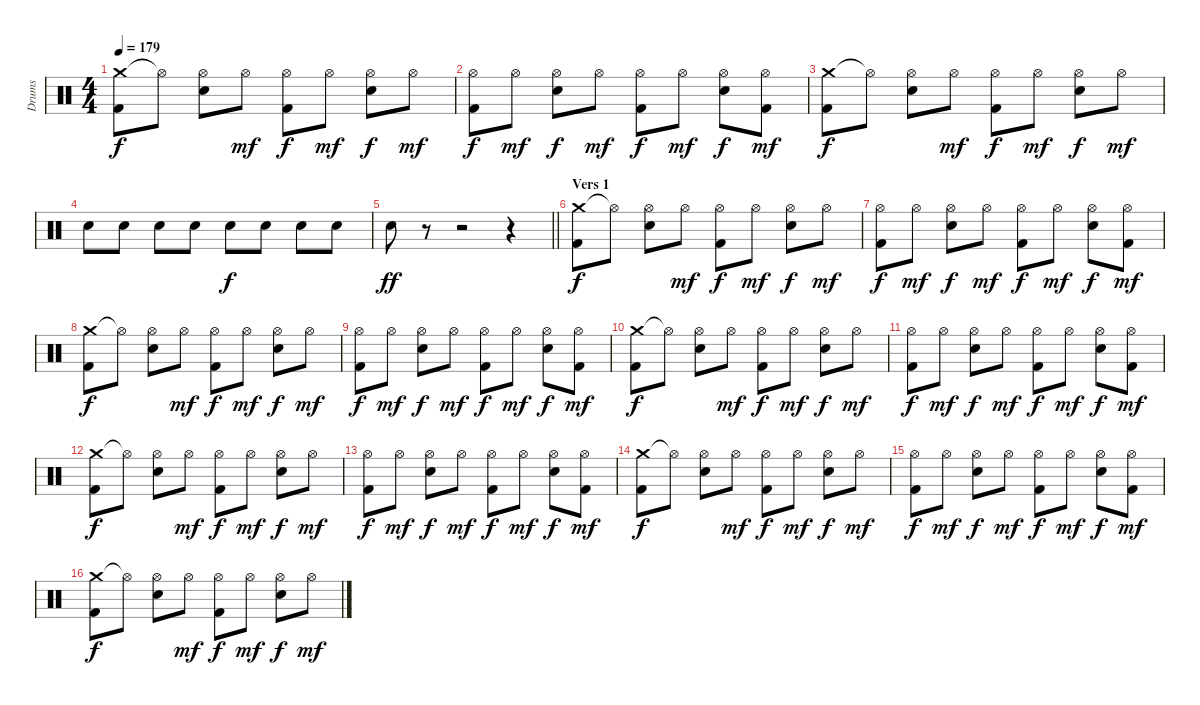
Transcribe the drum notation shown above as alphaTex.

\track ("Drums" "Drums") {instrument percussion}
\staff {score}
\articulation defaults
\ts (4 4)
\tempo 179
\clef neutral
\ks c
("Crash medium (hit)" "Kick (hit) 2").8{dy f} "Hi-Hat (open)"{t}.8 ("Hi-Hat (open)" "Electric Snare (hit)").8 "Hi-Hat (open)".8{dy mf} ("Hi-Hat (open)" "Kick (hit) 2").8{dy f} "Hi-Hat (open)".8{dy mf} ("Hi-Hat (open)" "Electric Snare (hit)").8{dy f} "Hi-Hat (open)".8{dy mf} |
("Hi-Hat (open)" "Kick (hit) 2").8{dy f} "Hi-Hat (open)".8{dy mf} ("Hi-Hat (open)" "Electric Snare (hit)").8{dy f} "Hi-Hat (open)".8{dy mf} ("Hi-Hat (open)" "Kick (hit) 2").8{dy f} "Hi-Hat (open)".8{dy mf} ("Hi-Hat (open)" "Electric Snare (hit)").8{dy f} ("Hi-Hat (open)" "Kick (hit) 2").8{dy mf} |
("Crash medium (hit)" "Kick (hit) 2").8{dy f} "Hi-Hat (open)"{t}.8 ("Hi-Hat (open)" "Electric Snare (hit)").8 "Hi-Hat (open)".8{dy mf} ("Hi-Hat (open)" "Kick (hit) 2").8{dy f} "Hi-Hat (open)".8{dy mf} ("Hi-Hat (open)" "Electric Snare (hit)").8{dy f} "Hi-Hat (open)".8{dy mf} |
"Electric Snare (hit)".8 "Electric Snare (hit)".8 "Electric Snare (hit)".8 "Electric Snare (hit)".8 "Electric Snare (hit)".8{dy f} "Electric Snare (hit)".8 "Electric Snare (hit)".8 "Electric Snare (hit)".8 |
\barLineRight lightlight "Electric Snare (hit)".8{dy ff}
r.8 r.2 r.4 |
\section ("" "Vers 1")
("Crash medium (hit)" "Kick (hit) 2").8{dy f} "Hi-Hat (open)"{t}.8 ("Hi-Hat (open)" "Electric Snare (hit)").8 "Hi-Hat (open)".8{dy mf} ("Hi-Hat (open)" "Kick (hit) 2").8{dy f} "Hi-Hat (open)".8{dy mf} ("Hi-Hat (open)" "Electric Snare (hit)").8{dy f} "Hi-Hat (open)".8{dy mf} |
("Hi-Hat (open)" "Kick (hit) 2").8{dy f} "Hi-Hat (open)".8{dy mf} ("Hi-Hat (open)" "Electric Snare (hit)").8{dy f} "Hi-Hat (open)".8{dy mf} ("Hi-Hat (open)" "Kick (hit) 2").8{dy f} "Hi-Hat (open)".8{dy mf} ("Hi-Hat (open)" "Electric Snare (hit)").8{dy f} ("Hi-Hat (open)" "Kick (hit) 2").8{dy mf} |
("Crash medium (hit)" "Kick (hit) 2").8{dy f} "Hi-Hat (open)"{t}.8 ("Hi-Hat (open)" "Electric Snare (hit)").8 "Hi-Hat (open)".8{dy mf} ("Hi-Hat (open)" "Kick (hit) 2").8{dy f} "Hi-Hat (open)".8{dy mf} ("Hi-Hat (open)" "Electric Snare (hit)").8{dy f} "Hi-Hat (open)".8{dy mf} |
("Hi-Hat (open)" "Kick (hit) 2").8{dy f} "Hi-Hat (open)".8{dy mf} ("Hi-Hat (open)" "Electric Snare (hit)").8{dy f} "Hi-Hat (open)".8{dy mf} ("Hi-Hat (open)" "Kick (hit) 2").8{dy f} "Hi-Hat (open)".8{dy mf} ("Hi-Hat (open)" "Electric Snare (hit)").8{dy f} ("Hi-Hat (open)" "Kick (hit) 2").8{dy mf} |
("Crash medium (hit)" "Kick (hit) 2").8{dy f} "Hi-Hat (open)"{t}.8 ("Hi-Hat (open)" "Electric Snare (hit)").8 "Hi-Hat (open)".8{dy mf} ("Hi-Hat (open)" "Kick (hit) 2").8{dy f} "Hi-Hat (open)".8{dy mf} ("Hi-Hat (open)" "Electric Snare (hit)").8{dy f} "Hi-Hat (open)".8{dy mf} |
("Hi-Hat (open)" "Kick (hit) 2").8{dy f} "Hi-Hat (open)".8{dy mf} ("Hi-Hat (open)" "Electric Snare (hit)").8{dy f} "Hi-Hat (open)".8{dy mf} ("Hi-Hat (open)" "Kick (hit) 2").8{dy f} "Hi-Hat (open)".8{dy mf} ("Hi-Hat (open)" "Electric Snare (hit)").8{dy f} ("Hi-Hat (open)" "Kick (hit) 2").8{dy mf} |
("Crash medium (hit)" "Kick (hit) 2").8{dy f} "Hi-Hat (open)"{t}.8 ("Hi-Hat (open)" "Electric Snare (hit)").8 "Hi-Hat (open)".8{dy mf} ("Hi-Hat (open)" "Kick (hit) 2").8{dy f} "Hi-Hat (open)".8{dy mf} ("Hi-Hat (open)" "Electric Snare (hit)").8{dy f} "Hi-Hat (open)".8{dy mf} |
("Hi-Hat (open)" "Kick (hit) 2").8{dy f} "Hi-Hat (open)".8{dy mf} ("Hi-Hat (open)" "Electric Snare (hit)").8{dy f} "Hi-Hat (open)".8{dy mf} ("Hi-Hat (open)" "Kick (hit) 2").8{dy f} "Hi-Hat (open)".8{dy mf} ("Hi-Hat (open)" "Electric Snare (hit)").8{dy f} ("Hi-Hat (open)" "Kick (hit) 2").8{dy mf} |
("Crash medium (hit)" "Kick (hit) 2").8{dy f} "Hi-Hat (open)"{t}.8 ("Hi-Hat (open)" "Electric Snare (hit)").8 "Hi-Hat (open)".8{dy mf} ("Hi-Hat (open)" "Kick (hit) 2").8{dy f} "Hi-Hat (open)".8{dy mf} ("Hi-Hat (open)" "Electric Snare (hit)").8{dy f} "Hi-Hat (open)".8{dy mf} |
("Hi-Hat (open)" "Kick (hit) 2").8{dy f} "Hi-Hat (open)".8{dy mf} ("Hi-Hat (open)" "Electric Snare (hit)").8{dy f} "Hi-Hat (open)".8{dy mf} ("Hi-Hat (open)" "Kick (hit) 2").8{dy f} "Hi-Hat (open)".8{dy mf} ("Hi-Hat (open)" "Electric Snare (hit)").8{dy f} ("Hi-Hat (open)" "Kick (hit) 2").8{dy mf} |
("Crash medium (hit)" "Kick (hit) 2").8{dy f} "Hi-Hat (open)"{t}.8 ("Hi-Hat (open)" "Electric Snare (hit)").8 "Hi-Hat (open)".8{dy mf} ("Hi-Hat (open)" "Kick (hit) 2").8{dy f} "Hi-Hat (open)".8{dy mf} ("Hi-Hat (open)" "Electric Snare (hit)").8{dy f} "Hi-Hat (open)".8{dy mf}
